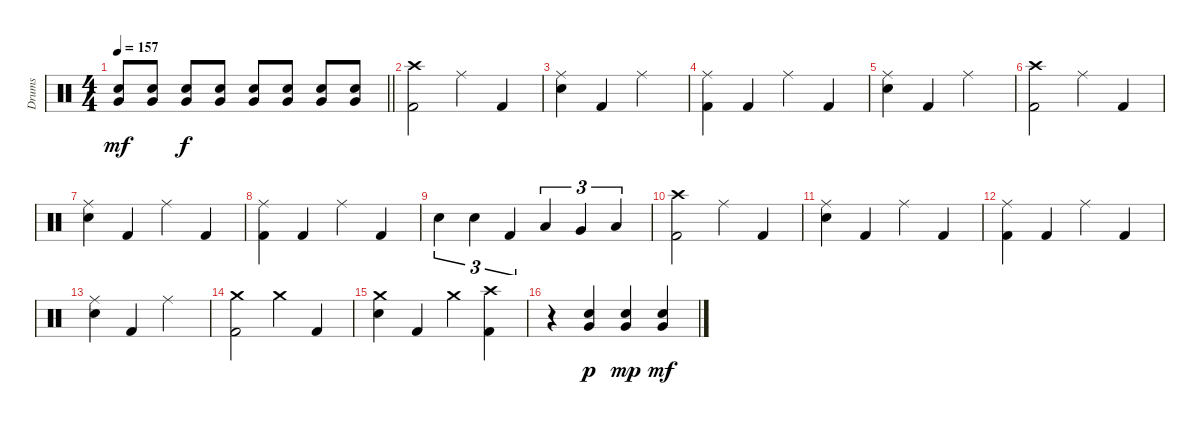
\track ("Drums" "Drums") {instrument percussion}
\staff {score}
\articulation defaults
\ts (4 4)
\tempo 157
\clef neutral
\barLineRight lightlight
\ks c
("Electric Snare (hit)" "Very Low Tom (hit)").8{dy mf} ("Electric Snare (hit)" "Very Low Tom (hit)").8 ("Electric Snare (hit)" "Very Low Tom (hit)").8{dy f} ("Electric Snare (hit)" "Very Low Tom (hit)").8 ("Electric Snare (hit)" "Very Low Tom (hit)").8 ("Electric Snare (hit)" "Very Low Tom (hit)").8 ("Electric Snare (hit)" "Very Low Tom (hit)").8 ("Electric Snare (hit)" "Very Low Tom (hit)").8 |
\section ("" "")
("Crash high (hit)" "Kick (hit) 2").2 "Ride (middle)".4 "Kick (hit) 2".4 |
("Ride (middle)" "Electric Snare (hit)").4 "Kick (hit) 2".4 "Ride (middle)".2 |
("Ride (middle)" "Kick (hit) 2").4 "Kick (hit) 2".4 "Ride (middle)".4 "Kick (hit) 2".4 |
("Ride (middle)" "Electric Snare (hit)").4 "Kick (hit) 2".4 "Ride (middle)".2 |
("Crash high (hit)" "Kick (hit) 2").2 "Ride (middle)".4 "Kick (hit) 2".4 |
("Ride (middle)" "Electric Snare (hit)").4 "Kick (hit) 2".4 "Ride (middle)".4 "Kick (hit) 2".4 |
("Ride (middle)" "Kick (hit) 2").4 "Kick (hit) 2".4 "Ride (middle)".4 "Kick (hit) 2".4 |
"Electric Snare (hit)".4{tu (3 2)} "Electric Snare (hit)".4{tu (3 2)} "Kick (hit) 2".4{tu (3 2)} "Low Tom (hit)".4{tu (3 2)} "Very Low Tom (hit)".4{tu (3 2)} "Low Floor Tom (hit)".4{tu (3 2)} |
("Crash high (hit)" "Kick (hit) 2").2 "Ride (middle)".4 "Kick (hit) 2".4 |
("Ride (middle)" "Electric Snare (hit)").4 "Kick (hit) 2".4 "Ride (middle)".4 "Kick (hit) 2".4 |
("Ride (middle)" "Kick (hit) 2").4 "Kick (hit) 2".4 "Ride (middle)".4 "Kick (hit) 2".4 |
("Ride (middle)" "Electric Snare (hit)").4 "Kick (hit) 2".4 "Ride (middle)".2 |
("Crash medium (hit)" "Kick (hit) 2").2 "Crash medium (hit)".4 "Kick (hit) 2".4 |
("Crash medium (hit)" "Electric Snare (hit)").4 "Kick (hit) 2".4 "Crash medium (hit)".4 ("Crash high (hit)" "Kick (hit) 2").4 |
r.4 ("Electric Snare (hit)" "Very Low Tom (hit)").4{dy p} ("Electric Snare (hit)" "Very Low Tom (hit)").4{dy mp} ("Electric Snare (hit)" "Very Low Tom (hit)").4{dy mf}
